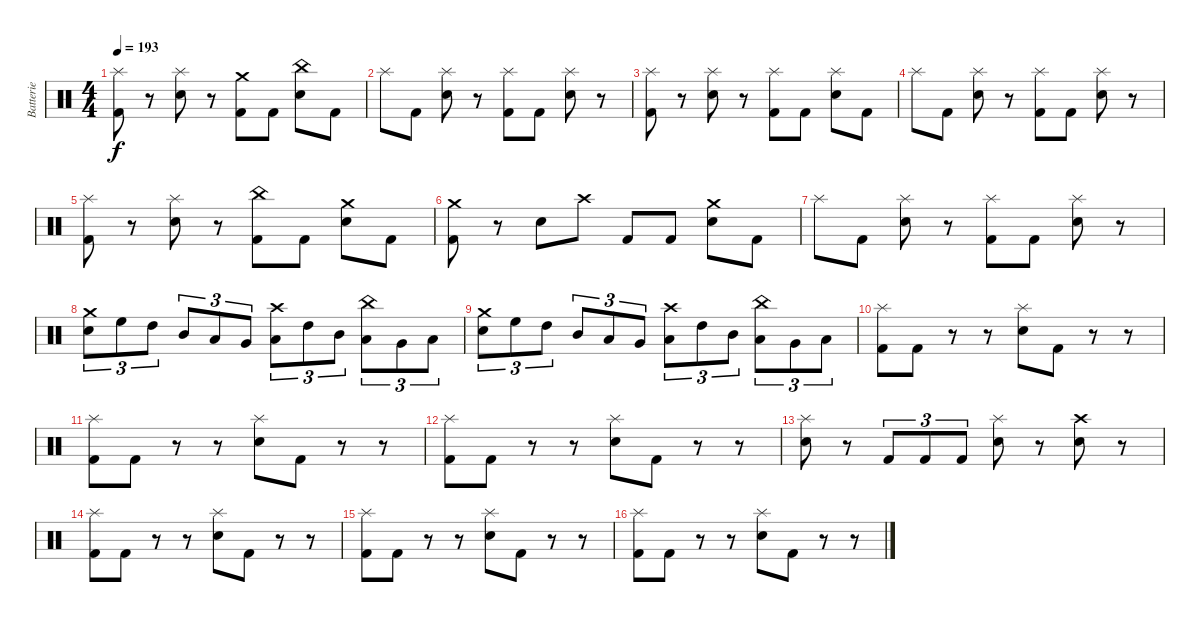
\track ("Batterie" "Batterie") {instrument percussion}
\staff {score}
\articulation defaults
\ts (4 4)
\tempo 193
\clef neutral
\ks c
("Kick (hit) 2" "Splash (hit)").8{dy f} r.8 ("Electric Snare (hit)" "Splash (hit)").8 r.8 ("Kick (hit) 2" "Crash medium (hit)").8 "Kick (hit) 2".8 ("Electric Snare (hit)" "China (hit)").8 "Kick (hit) 2".8 |
"Splash (hit)".8 "Kick (hit) 2".8 ("Electric Snare (hit)" "Splash (hit)").8 r.8 ("Kick (hit) 2" "Splash (hit)").8 "Kick (hit) 2".8 ("Electric Snare (hit)" "Splash (hit)").8 r.8 |
("Kick (hit) 2" "Splash (hit)").8 r.8 ("Electric Snare (hit)" "Splash (hit)").8 r.8 ("Kick (hit) 2" "Splash (hit)").8 "Kick (hit) 2".8 ("Electric Snare (hit)" "Splash (hit)").8 "Kick (hit) 2".8 |
"Splash (hit)".8 "Kick (hit) 2".8 ("Electric Snare (hit)" "Splash (hit)").8 r.8 ("Kick (hit) 2" "Splash (hit)").8 "Kick (hit) 2".8 ("Electric Snare (hit)" "Splash (hit)").8 r.8 |
("Kick (hit) 2" "Splash (hit)").8 r.8 ("Electric Snare (hit)" "Splash (hit)").8 r.8 ("Kick (hit) 2" "China (hit)").8 "Kick (hit) 2".8 ("Electric Snare (hit)" "Crash medium (hit)").8 "Kick (hit) 2".8 |
("Kick (hit) 2" "Crash medium (hit)").8 r.8 "Electric Snare (hit)".8 "Crash high (hit)".8 "Kick (hit) 2".8 "Kick (hit) 2".8 ("Electric Snare (hit)" "Crash medium (hit)").8 "Kick (hit) 2".8 |
"Splash (hit)".8 "Kick (hit) 2".8 ("Electric Snare (hit)" "Splash (hit)").8 r.8 ("Kick (hit) 2" "Splash (hit)").8 "Kick (hit) 2".8 ("Electric Snare (hit)" "Splash (hit)").8 r.8 |
("Electric Snare (hit)" "Crash medium (hit)").8{tu (3 2)} "High Floor Tom (hit)".8{tu (3 2)} "High Tom (hit)".8{tu (3 2)} "Mid Tom (hit)".8{tu (3 2)} "Low Tom (hit)".8{tu (3 2)} "Very Low Tom (hit)".8{tu (3 2)} ("Low Floor Tom (hit)" "Crash high (hit)").8{tu (3 2)} "High Tom (hit)".8{tu (3 2)} "Mid Tom (hit)".8{tu (3 2)} ("Low Tom (hit)" "China (hit)").8{tu (3 2)} "Very Low Tom (hit)".8{tu (3 2)} "Low Floor Tom (hit)".8{tu (3 2)} |
("Electric Snare (hit)" "Crash medium (hit)").8{tu (3 2)} "High Floor Tom (hit)".8{tu (3 2)} "High Tom (hit)".8{tu (3 2)} "Mid Tom (hit)".8{tu (3 2)} "Low Tom (hit)".8{tu (3 2)} "Very Low Tom (hit)".8{tu (3 2)} ("Low Floor Tom (hit)" "Crash high (hit)").8{tu (3 2)} "High Tom (hit)".8{tu (3 2)} "Mid Tom (hit)".8{tu (3 2)} ("Low Tom (hit)" "China (hit)").8{tu (3 2)} "Very Low Tom (hit)".8{tu (3 2)} "Low Floor Tom (hit)".8{tu (3 2)} |
("Kick (hit) 2" "Splash (hit)").8 "Kick (hit) 2".8 r.8 r.8 ("Electric Snare (hit)" "Splash (hit)").8 "Kick (hit) 2".8 r.8 r.8 |
("Kick (hit) 2" "Splash (hit)").8 "Kick (hit) 2".8 r.8 r.8 ("Electric Snare (hit)" "Splash (hit)").8 "Kick (hit) 2".8 r.8 r.8 |
("Kick (hit) 2" "Splash (hit)").8 "Kick (hit) 2".8 r.8 r.8 ("Electric Snare (hit)" "Splash (hit)").8 "Kick (hit) 2".8 r.8 r.8 |
("Electric Snare (hit)" "Splash (hit)").8 r.8 "Kick (hit) 2".8{tu (3 2)} "Kick (hit) 2".8{tu (3 2)} "Kick (hit) 2".8{tu (3 2)} ("Electric Snare (hit)" "Splash (hit)").8 r.8 ("Electric Snare (hit)" "Crash high (hit)").8 r.8 |
("Kick (hit) 2" "Splash (hit)").8 "Kick (hit) 2".8 r.8 r.8 ("Electric Snare (hit)" "Splash (hit)").8 "Kick (hit) 2".8 r.8 r.8 |
("Kick (hit) 2" "Splash (hit)").8 "Kick (hit) 2".8 r.8 r.8 ("Electric Snare (hit)" "Splash (hit)").8 "Kick (hit) 2".8 r.8 r.8 |
("Kick (hit) 2" "Splash (hit)").8 "Kick (hit) 2".8 r.8 r.8 ("Electric Snare (hit)" "Splash (hit)").8 "Kick (hit) 2".8 r.8 r.8
